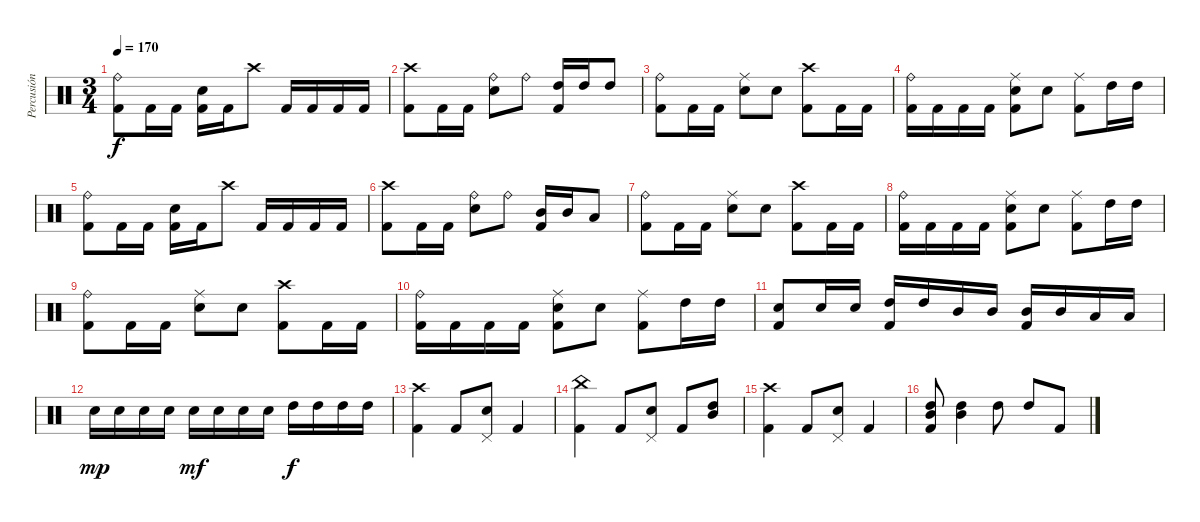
\track ("Percusión" "Percusión") {instrument percussion}
\staff {score}
\articulation defaults
\ts (3 4)
\tempo 170
\clef neutral
\ks c
("Ride (bell)" "Kick (hit) 2").8{dy f} "Kick (hit) 2".16 "Kick (hit) 2".16 ("Snare (hit) 2" "Kick (hit) 2").16 "Kick (hit) 2".16 "Crash high (hit)".8 "Kick (hit) 2".16 "Kick (hit) 2".16 "Kick (hit) 2".16 "Kick (hit) 2".16 |
("Crash high (hit)" "Kick (hit) 2").8 "Kick (hit) 2".16 "Kick (hit) 2".16 ("Ride (bell)" "Snare (hit) 2").8 "Ride (bell)".8 ("High Tom (hit)" "Kick (hit) 2").16 "High Tom (hit)".16 "High Tom (hit)".8 |
("Ride (bell)" "Kick (hit) 2").8 "Kick (hit) 2".16 "Kick (hit) 2".16 ("Ride (middle)" "Snare (hit) 2").8 "Snare (hit) 2".8 ("Crash high (hit)" "Kick (hit) 2").8 "Kick (hit) 2".16 "Kick (hit) 2".16 |
("Ride (bell)" "Kick (hit) 2").16 "Kick (hit) 2".16 "Kick (hit) 2".16 "Kick (hit) 2".16 ("Ride (middle)" "Snare (hit) 2" "Kick (hit) 2").8 "Snare (hit) 2".8 ("Ride (middle)" "Kick (hit) 2").8 "High Tom (hit)".16 "High Tom (hit)".16 |
("Ride (bell)" "Kick (hit) 2").8 "Kick (hit) 2".16 "Kick (hit) 2".16 ("Snare (hit) 2" "Kick (hit) 2").16 "Kick (hit) 2".16 "Crash high (hit)".8 "Kick (hit) 2".16 "Kick (hit) 2".16 "Kick (hit) 2".16 "Kick (hit) 2".16 |
("Crash high (hit)" "Kick (hit) 2").8 "Kick (hit) 2".16 "Kick (hit) 2".16 ("Ride (bell)" "Snare (hit) 2").8 "Ride (bell)".8 ("Mid Tom (hit)" "Kick (hit) 2").16 "Mid Tom (hit)".16 "Low Tom (hit)".8 |
("Ride (bell)" "Kick (hit) 2").8 "Kick (hit) 2".16 "Kick (hit) 2".16 ("Ride (middle)" "Snare (hit) 2").8 "Snare (hit) 2".8 ("Crash high (hit)" "Kick (hit) 2").8 "Kick (hit) 2".16 "Kick (hit) 2".16 |
("Ride (bell)" "Kick (hit) 2").16 "Kick (hit) 2".16 "Kick (hit) 2".16 "Kick (hit) 2".16 ("Ride (middle)" "Snare (hit) 2" "Kick (hit) 2").8 "Snare (hit) 2".8 ("Ride (middle)" "Kick (hit) 2").8 "High Tom (hit)".16 "High Tom (hit)".16 |
("Ride (bell)" "Kick (hit) 2").8 "Kick (hit) 2".16 "Kick (hit) 2".16 ("Ride (middle)" "Snare (hit) 2").8 "Snare (hit) 2".8 ("Crash high (hit)" "Kick (hit) 2").8 "Kick (hit) 2".16 "Kick (hit) 2".16 |
("Ride (bell)" "Kick (hit) 2").16 "Kick (hit) 2".16 "Kick (hit) 2".16 "Kick (hit) 2".16 ("Ride (middle)" "Snare (hit) 2" "Kick (hit) 2").8 "Snare (hit) 2".8 ("Ride (middle)" "Kick (hit) 2").8 "High Tom (hit)".16 "High Tom (hit)".16 |
("Snare (hit) 2" "Kick (hit) 2").8 "Snare (hit) 2".16 "Snare (hit) 2".16 ("High Tom (hit)" "Kick (hit) 2").16 "High Tom (hit)".16 "Mid Tom (hit)".16 "Mid Tom (hit)".16 ("Mid Tom (hit)" "Kick (hit) 2").16 "Mid Tom (hit)".16 "Low Tom (hit)".16 "Low Tom (hit)".16 |
"Snare (hit) 2".16{dy mp} "Snare (hit) 2".16 "Snare (hit) 2".16 "Snare (hit) 2".16 "Snare (hit) 2".16{dy mf} "Snare (hit) 2".16 "Snare (hit) 2".16 "Snare (hit) 2".16 "High Tom (hit)".16{dy f} "High Tom (hit)".16 "High Tom (hit)".16 "High Tom (hit)".16 |
("Crash high (hit)" "Kick (hit) 2").4 "Kick (hit) 2".8 ("Pedal Hi-Hat (hit)" "Snare (hit) 2").8 "Kick (hit) 2".4 |
("China (hit)" "Kick (hit) 2").4 "Kick (hit) 2".8 ("Pedal Hi-Hat (hit)" "Snare (hit) 2").8 "Kick (hit) 2".8 ("High Tom (hit)" "Mid Tom (hit)").8 |
("Crash high (hit)" "Kick (hit) 2").4 "Kick (hit) 2".8 ("Pedal Hi-Hat (hit)" "Snare (hit) 2").8 "Kick (hit) 2".4 |
("High Tom (hit)" "Mid Tom (hit)" "Kick (hit) 2").8 ("High Tom (hit)" "Mid Tom (hit)").4 "High Tom (hit)".8 "High Tom (hit)".8 "Kick (hit) 2".8
